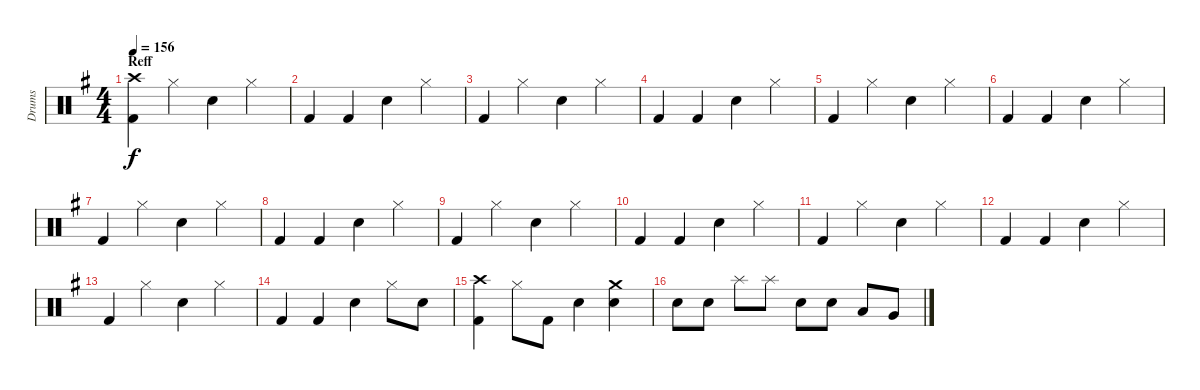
\track ("Drums" "Drums") {instrument percussion}
\staff {score}
\articulation defaults
\ts (4 4)
\section ("" "Reff")
\tempo 156
\clef neutral
\ks g
("Crash high (hit)" "Kick (hit) 2").4{dy f} "Hi-Hat (closed)".4 "Snare (hit) 2".4 "Hi-Hat (closed)".4 |
"Kick (hit) 2".4 "Kick (hit) 2".4 "Snare (hit) 2".4 "Hi-Hat (closed)".4 |
"Kick (hit) 2".4 "Hi-Hat (closed)".4 "Snare (hit) 2".4 "Hi-Hat (closed)".4 |
"Kick (hit) 2".4 "Kick (hit) 2".4 "Snare (hit) 2".4 "Hi-Hat (closed)".4 |
"Kick (hit) 2".4 "Hi-Hat (closed)".4 "Snare (hit) 2".4 "Hi-Hat (closed)".4 |
"Kick (hit) 2".4 "Kick (hit) 2".4 "Snare (hit) 2".4 "Hi-Hat (closed)".4 |
"Kick (hit) 2".4 "Hi-Hat (closed)".4 "Snare (hit) 2".4 "Hi-Hat (closed)".4 |
"Kick (hit) 2".4 "Kick (hit) 2".4 "Snare (hit) 2".4 "Hi-Hat (closed)".4 |
"Kick (hit) 2".4 "Hi-Hat (closed)".4 "Snare (hit) 2".4 "Hi-Hat (closed)".4 |
"Kick (hit) 2".4 "Kick (hit) 2".4 "Snare (hit) 2".4 "Hi-Hat (closed)".4 |
"Kick (hit) 2".4 "Hi-Hat (closed)".4 "Snare (hit) 2".4 "Hi-Hat (closed)".4 |
"Kick (hit) 2".4 "Kick (hit) 2".4 "Snare (hit) 2".4 "Hi-Hat (closed)".4 |
"Kick (hit) 2".4 "Hi-Hat (closed)".4 "Snare (hit) 2".4 "Hi-Hat (closed)".4 |
"Kick (hit) 2".4 "Kick (hit) 2".4 "Snare (hit) 2".4 "Hi-Hat (closed)".8 "Snare (hit) 2".8 |
("Crash high (hit)" "Kick (hit) 2").4 "Hi-Hat (closed)".8 "Kick (hit) 2".8 "Snare (hit) 2".4 ("Crash medium (hit)" "Snare (hit) 2").4 |
"Snare (hit) 2".8 "Snare (hit) 2".8 "Splash (hit)".8 "Splash (hit)".8 "Snare (hit) 2".8 "Snare (hit) 2".8 "Low Tom (hit)".8 "Very Low Tom (hit)".8
